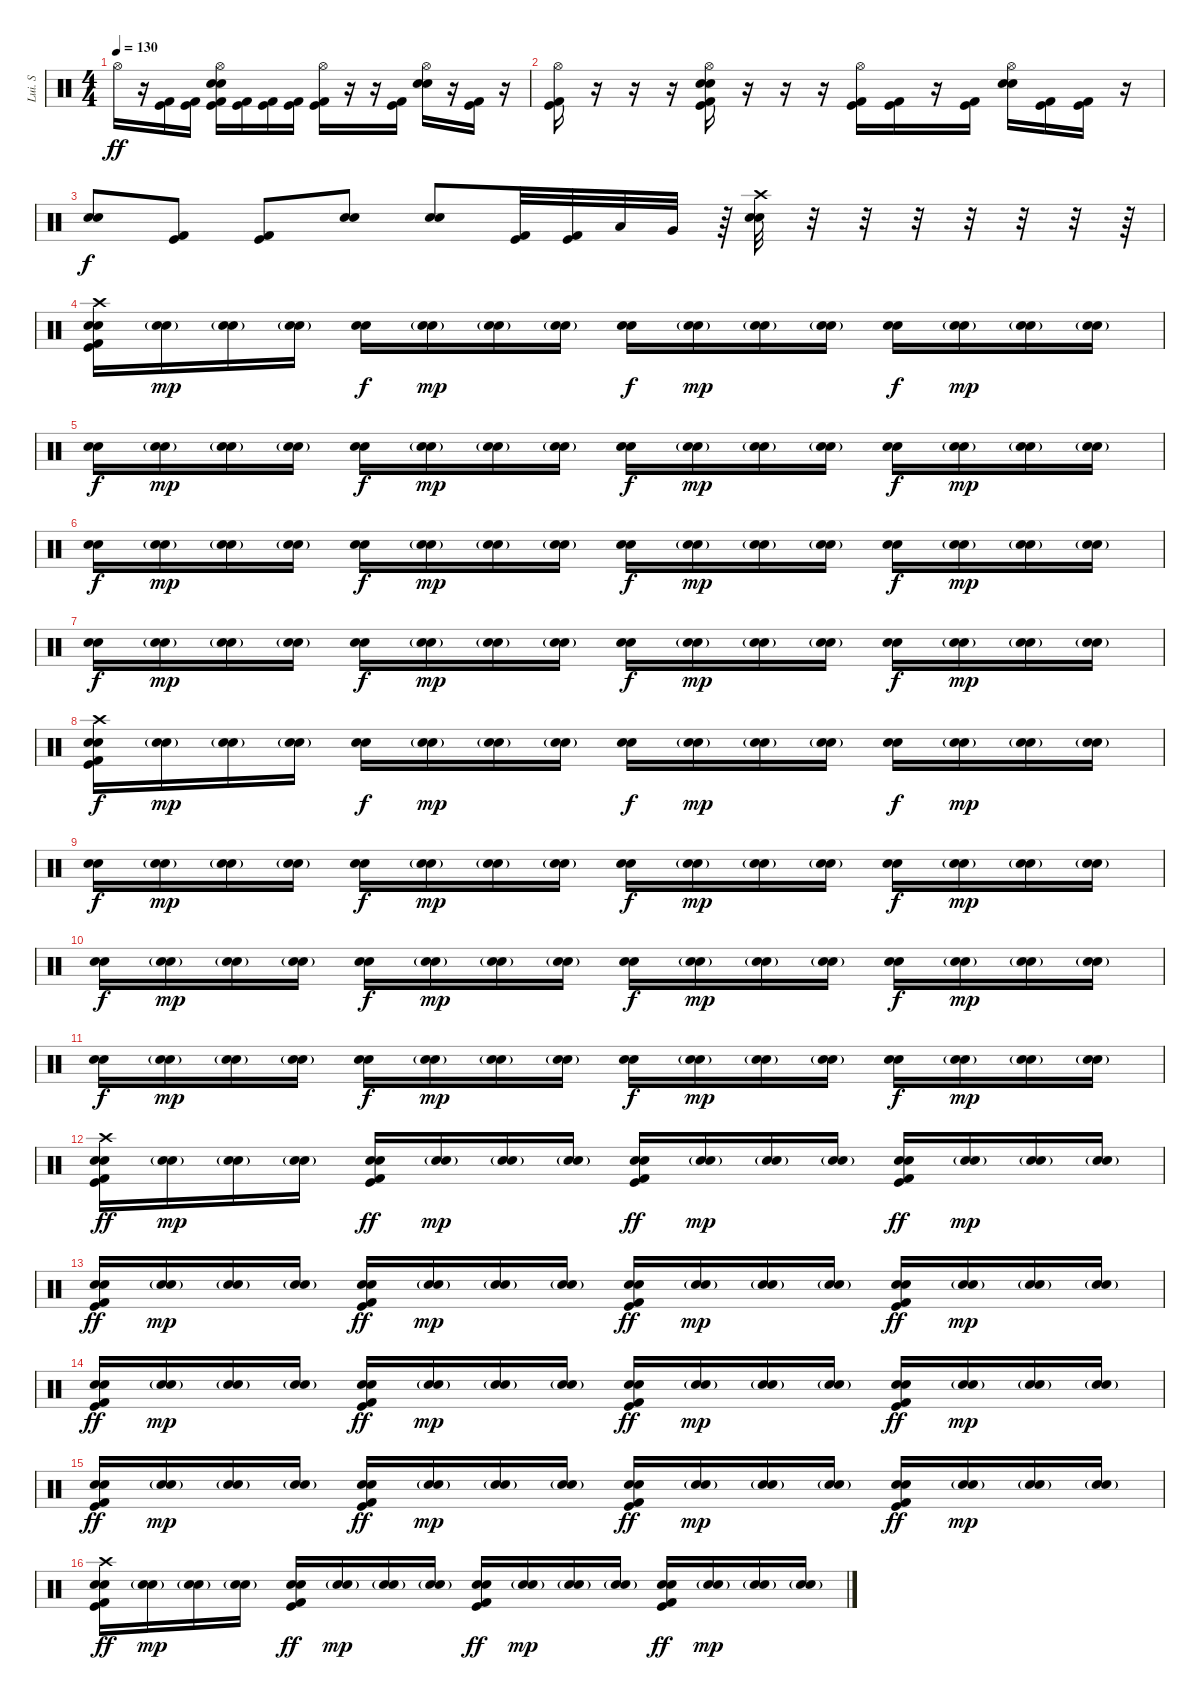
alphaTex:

\track ("Lui. S" "Lui. S") {instrument percussion}
\staff {score}
\articulation defaults
\ts (4 4)
\tempo 130
\clef neutral
\ks c "Hi-Hat (open)".16{dy ff}
r.16 ("Kick (hit)" "Kick (hit) 2").16 ("Kick (hit)" "Kick (hit) 2").16 ("Hi-Hat (open)" "Electric Snare (hit)" "Snare (hit) 2" "Kick (hit)" "Kick (hit) 2").16 ("Kick (hit)" "Kick (hit) 2").16 ("Kick (hit)" "Kick (hit) 2").16 ("Kick (hit)" "Kick (hit) 2").16 ("Hi-Hat (open)" "Kick (hit)" "Kick (hit) 2").16 r.16 r.16 ("Kick (hit)" "Kick (hit) 2").16 ("Hi-Hat (open)" "Electric Snare (hit)" "Snare (hit) 2").16 r.16 ("Kick (hit)" "Kick (hit) 2").16 r.16 |
("Hi-Hat (open)" "Kick (hit)" "Kick (hit) 2").16 r.16 r.16 r.16 ("Hi-Hat (open)" "Electric Snare (hit)" "Snare (hit) 2" "Kick (hit)" "Kick (hit) 2").16 r.16 r.16 r.16 ("Hi-Hat (open)" "Kick (hit)" "Kick (hit) 2").16 ("Kick (hit)" "Kick (hit) 2").16 r.16 ("Kick (hit)" "Kick (hit) 2").16 ("Hi-Hat (open)" "Electric Snare (hit)" "Snare (hit) 2").16 ("Kick (hit)" "Kick (hit) 2").16 ("Kick (hit)" "Kick (hit) 2").16 r.16 |
("Snare (hit) 2" "Electric Snare (hit)").8{dy f} ("Kick (hit) 2" "Kick (hit)").8 ("Kick (hit) 2" "Kick (hit)").8 ("Snare (hit) 2" "Electric Snare (hit)").8 ("Snare (hit) 2" "Electric Snare (hit)").8 ("Kick (hit) 2" "Kick (hit)").32 ("Kick (hit) 2" "Kick (hit)").32 "Low Floor Tom (hit)".32 "Very Low Tom (hit)".32 r.64 ("Crash high (hit)" "Snare (hit) 2" "Electric Snare (hit)").32 r.32 r.32 r.32 r.32 r.32 r.32 r.64 |
("Crash high (hit)" "Snare (hit) 2" "Electric Snare (hit)" "Kick (hit)" "Kick (hit) 2").16 ("Snare (hit) 2"{g} "Electric Snare (hit)"{g}).16{dy mp} ("Snare (hit) 2"{g} "Electric Snare (hit)"{g}).16 ("Snare (hit) 2"{g} "Electric Snare (hit)"{g}).16 ("Snare (hit) 2" "Electric Snare (hit)").16{dy f} ("Snare (hit) 2"{g} "Electric Snare (hit)"{g}).16{dy mp} ("Snare (hit) 2"{g} "Electric Snare (hit)"{g}).16 ("Snare (hit) 2"{g} "Electric Snare (hit)"{g}).16 ("Snare (hit) 2" "Electric Snare (hit)").16{dy f} ("Snare (hit) 2"{g} "Electric Snare (hit)"{g}).16{dy mp} ("Snare (hit) 2"{g} "Electric Snare (hit)"{g}).16 ("Snare (hit) 2"{g} "Electric Snare (hit)"{g}).16 ("Snare (hit) 2" "Electric Snare (hit)").16{dy f} ("Snare (hit) 2"{g} "Electric Snare (hit)"{g}).16{dy mp} ("Snare (hit) 2"{g} "Electric Snare (hit)"{g}).16 ("Snare (hit) 2"{g} "Electric Snare (hit)"{g}).16 |
("Snare (hit) 2" "Electric Snare (hit)").16{dy f} ("Snare (hit) 2"{g} "Electric Snare (hit)"{g}).16{dy mp} ("Snare (hit) 2"{g} "Electric Snare (hit)"{g}).16 ("Snare (hit) 2"{g} "Electric Snare (hit)"{g}).16 ("Snare (hit) 2" "Electric Snare (hit)").16{dy f} ("Snare (hit) 2"{g} "Electric Snare (hit)"{g}).16{dy mp} ("Snare (hit) 2"{g} "Electric Snare (hit)"{g}).16 ("Snare (hit) 2"{g} "Electric Snare (hit)"{g}).16 ("Snare (hit) 2" "Electric Snare (hit)").16{dy f} ("Snare (hit) 2"{g} "Electric Snare (hit)"{g}).16{dy mp} ("Snare (hit) 2"{g} "Electric Snare (hit)"{g}).16 ("Snare (hit) 2"{g} "Electric Snare (hit)"{g}).16 ("Snare (hit) 2" "Electric Snare (hit)").16{dy f} ("Snare (hit) 2"{g} "Electric Snare (hit)"{g}).16{dy mp} ("Snare (hit) 2"{g} "Electric Snare (hit)"{g}).16 ("Snare (hit) 2"{g} "Electric Snare (hit)"{g}).16 |
("Snare (hit) 2" "Electric Snare (hit)").16{dy f} ("Snare (hit) 2"{g} "Electric Snare (hit)"{g}).16{dy mp} ("Snare (hit) 2"{g} "Electric Snare (hit)"{g}).16 ("Snare (hit) 2"{g} "Electric Snare (hit)"{g}).16 ("Snare (hit) 2" "Electric Snare (hit)").16{dy f} ("Snare (hit) 2"{g} "Electric Snare (hit)"{g}).16{dy mp} ("Snare (hit) 2"{g} "Electric Snare (hit)"{g}).16 ("Snare (hit) 2"{g} "Electric Snare (hit)"{g}).16 ("Snare (hit) 2" "Electric Snare (hit)").16{dy f} ("Snare (hit) 2"{g} "Electric Snare (hit)"{g}).16{dy mp} ("Snare (hit) 2"{g} "Electric Snare (hit)"{g}).16 ("Snare (hit) 2"{g} "Electric Snare (hit)"{g}).16 ("Snare (hit) 2" "Electric Snare (hit)").16{dy f} ("Snare (hit) 2"{g} "Electric Snare (hit)"{g}).16{dy mp} ("Snare (hit) 2"{g} "Electric Snare (hit)"{g}).16 ("Snare (hit) 2"{g} "Electric Snare (hit)"{g}).16 |
("Snare (hit) 2" "Electric Snare (hit)").16{dy f} ("Snare (hit) 2"{g} "Electric Snare (hit)"{g}).16{dy mp} ("Snare (hit) 2"{g} "Electric Snare (hit)"{g}).16 ("Snare (hit) 2"{g} "Electric Snare (hit)"{g}).16 ("Snare (hit) 2" "Electric Snare (hit)").16{dy f} ("Snare (hit) 2"{g} "Electric Snare (hit)"{g}).16{dy mp} ("Snare (hit) 2"{g} "Electric Snare (hit)"{g}).16 ("Snare (hit) 2"{g} "Electric Snare (hit)"{g}).16 ("Snare (hit) 2" "Electric Snare (hit)").16{dy f} ("Snare (hit) 2"{g} "Electric Snare (hit)"{g}).16{dy mp} ("Snare (hit) 2"{g} "Electric Snare (hit)"{g}).16 ("Snare (hit) 2"{g} "Electric Snare (hit)"{g}).16 ("Snare (hit) 2" "Electric Snare (hit)").16{dy f} ("Snare (hit) 2"{g} "Electric Snare (hit)"{g}).16{dy mp} ("Snare (hit) 2"{g} "Electric Snare (hit)"{g}).16 ("Snare (hit) 2"{g} "Electric Snare (hit)"{g}).16 |
("Crash high (hit)" "Snare (hit) 2" "Electric Snare (hit)" "Kick (hit) 2" "Kick (hit)").16{dy f} ("Snare (hit) 2"{g} "Electric Snare (hit)"{g}).16{dy mp} ("Snare (hit) 2"{g} "Electric Snare (hit)"{g}).16 ("Snare (hit) 2"{g} "Electric Snare (hit)"{g}).16 ("Snare (hit) 2" "Electric Snare (hit)").16{dy f} ("Snare (hit) 2"{g} "Electric Snare (hit)"{g}).16{dy mp} ("Snare (hit) 2"{g} "Electric Snare (hit)"{g}).16 ("Snare (hit) 2"{g} "Electric Snare (hit)"{g}).16 ("Snare (hit) 2" "Electric Snare (hit)").16{dy f} ("Snare (hit) 2"{g} "Electric Snare (hit)"{g}).16{dy mp} ("Snare (hit) 2"{g} "Electric Snare (hit)"{g}).16 ("Snare (hit) 2"{g} "Electric Snare (hit)"{g}).16 ("Snare (hit) 2" "Electric Snare (hit)").16{dy f} ("Snare (hit) 2"{g} "Electric Snare (hit)"{g}).16{dy mp} ("Snare (hit) 2"{g} "Electric Snare (hit)"{g}).16 ("Snare (hit) 2"{g} "Electric Snare (hit)"{g}).16 |
("Snare (hit) 2" "Electric Snare (hit)").16{dy f} ("Snare (hit) 2"{g} "Electric Snare (hit)"{g}).16{dy mp} ("Snare (hit) 2"{g} "Electric Snare (hit)"{g}).16 ("Snare (hit) 2"{g} "Electric Snare (hit)"{g}).16 ("Snare (hit) 2" "Electric Snare (hit)").16{dy f} ("Snare (hit) 2"{g} "Electric Snare (hit)"{g}).16{dy mp} ("Snare (hit) 2"{g} "Electric Snare (hit)"{g}).16 ("Snare (hit) 2"{g} "Electric Snare (hit)"{g}).16 ("Snare (hit) 2" "Electric Snare (hit)").16{dy f} ("Snare (hit) 2"{g} "Electric Snare (hit)"{g}).16{dy mp} ("Snare (hit) 2"{g} "Electric Snare (hit)"{g}).16 ("Snare (hit) 2"{g} "Electric Snare (hit)"{g}).16 ("Snare (hit) 2" "Electric Snare (hit)").16{dy f} ("Snare (hit) 2"{g} "Electric Snare (hit)"{g}).16{dy mp} ("Snare (hit) 2"{g} "Electric Snare (hit)"{g}).16 ("Snare (hit) 2"{g} "Electric Snare (hit)"{g}).16 |
("Snare (hit) 2" "Electric Snare (hit)").16{dy f} ("Snare (hit) 2"{g} "Electric Snare (hit)"{g}).16{dy mp} ("Snare (hit) 2"{g} "Electric Snare (hit)"{g}).16 ("Snare (hit) 2"{g} "Electric Snare (hit)"{g}).16 ("Snare (hit) 2" "Electric Snare (hit)").16{dy f} ("Snare (hit) 2"{g} "Electric Snare (hit)"{g}).16{dy mp} ("Snare (hit) 2"{g} "Electric Snare (hit)"{g}).16 ("Snare (hit) 2"{g} "Electric Snare (hit)"{g}).16 ("Snare (hit) 2" "Electric Snare (hit)").16{dy f} ("Snare (hit) 2"{g} "Electric Snare (hit)"{g}).16{dy mp} ("Snare (hit) 2"{g} "Electric Snare (hit)"{g}).16 ("Snare (hit) 2"{g} "Electric Snare (hit)"{g}).16 ("Snare (hit) 2" "Electric Snare (hit)").16{dy f} ("Snare (hit) 2"{g} "Electric Snare (hit)"{g}).16{dy mp} ("Snare (hit) 2"{g} "Electric Snare (hit)"{g}).16 ("Snare (hit) 2"{g} "Electric Snare (hit)"{g}).16 |
("Snare (hit) 2" "Electric Snare (hit)").16{dy f} ("Snare (hit) 2"{g} "Electric Snare (hit)"{g}).16{dy mp} ("Snare (hit) 2"{g} "Electric Snare (hit)"{g}).16 ("Snare (hit) 2"{g} "Electric Snare (hit)"{g}).16 ("Snare (hit) 2" "Electric Snare (hit)").16{dy f} ("Snare (hit) 2"{g} "Electric Snare (hit)"{g}).16{dy mp} ("Snare (hit) 2"{g} "Electric Snare (hit)"{g}).16 ("Snare (hit) 2"{g} "Electric Snare (hit)"{g}).16 ("Snare (hit) 2" "Electric Snare (hit)").16{dy f} ("Snare (hit) 2"{g} "Electric Snare (hit)"{g}).16{dy mp} ("Snare (hit) 2"{g} "Electric Snare (hit)"{g}).16 ("Snare (hit) 2"{g} "Electric Snare (hit)"{g}).16 ("Snare (hit) 2" "Electric Snare (hit)").16{dy f} ("Snare (hit) 2"{g} "Electric Snare (hit)"{g}).16{dy mp} ("Snare (hit) 2"{g} "Electric Snare (hit)"{g}).16 ("Snare (hit) 2"{g} "Electric Snare (hit)"{g}).16 |
("Crash high (hit)" "Snare (hit) 2" "Electric Snare (hit)" "Kick (hit) 2" "Kick (hit)").16{dy ff} ("Snare (hit) 2"{g} "Electric Snare (hit)"{g}).16{dy mp} ("Snare (hit) 2"{g} "Electric Snare (hit)"{g}).16 ("Snare (hit) 2"{g} "Electric Snare (hit)"{g}).16 ("Snare (hit) 2" "Electric Snare (hit)" "Kick (hit)" "Kick (hit) 2").16{dy ff} ("Snare (hit) 2"{g} "Electric Snare (hit)"{g}).16{dy mp} ("Snare (hit) 2"{g} "Electric Snare (hit)"{g}).16 ("Snare (hit) 2"{g} "Electric Snare (hit)"{g}).16 ("Snare (hit) 2" "Electric Snare (hit)" "Kick (hit) 2" "Kick (hit)").16{dy ff} ("Snare (hit) 2"{g} "Electric Snare (hit)"{g}).16{dy mp} ("Snare (hit) 2"{g} "Electric Snare (hit)"{g}).16 ("Snare (hit) 2"{g} "Electric Snare (hit)"{g}).16 ("Snare (hit) 2" "Electric Snare (hit)" "Kick (hit)" "Kick (hit) 2").16{dy ff} ("Snare (hit) 2"{g} "Electric Snare (hit)"{g}).16{dy mp} ("Snare (hit) 2"{g} "Electric Snare (hit)"{g}).16 ("Snare (hit) 2"{g} "Electric Snare (hit)"{g}).16 |
("Snare (hit) 2" "Electric Snare (hit)" "Kick (hit) 2" "Kick (hit)").16{dy ff} ("Snare (hit) 2"{g} "Electric Snare (hit)"{g}).16{dy mp} ("Snare (hit) 2"{g} "Electric Snare (hit)"{g}).16 ("Snare (hit) 2"{g} "Electric Snare (hit)"{g}).16 ("Snare (hit) 2" "Electric Snare (hit)" "Kick (hit)" "Kick (hit) 2").16{dy ff} ("Snare (hit) 2"{g} "Electric Snare (hit)"{g}).16{dy mp} ("Snare (hit) 2"{g} "Electric Snare (hit)"{g}).16 ("Snare (hit) 2"{g} "Electric Snare (hit)"{g}).16 ("Snare (hit) 2" "Electric Snare (hit)" "Kick (hit)" "Kick (hit) 2").16{dy ff} ("Snare (hit) 2"{g} "Electric Snare (hit)"{g}).16{dy mp} ("Snare (hit) 2"{g} "Electric Snare (hit)"{g}).16 ("Snare (hit) 2"{g} "Electric Snare (hit)"{g}).16 ("Snare (hit) 2" "Electric Snare (hit)" "Kick (hit)" "Kick (hit) 2").16{dy ff} ("Snare (hit) 2"{g} "Electric Snare (hit)"{g}).16{dy mp} ("Snare (hit) 2"{g} "Electric Snare (hit)"{g}).16 ("Snare (hit) 2"{g} "Electric Snare (hit)"{g}).16 |
("Snare (hit) 2" "Electric Snare (hit)" "Kick (hit) 2" "Kick (hit)").16{dy ff} ("Snare (hit) 2"{g} "Electric Snare (hit)"{g}).16{dy mp} ("Snare (hit) 2"{g} "Electric Snare (hit)"{g}).16 ("Snare (hit) 2"{g} "Electric Snare (hit)"{g}).16 ("Snare (hit) 2" "Electric Snare (hit)" "Kick (hit)" "Kick (hit) 2").16{dy ff} ("Snare (hit) 2"{g} "Electric Snare (hit)"{g}).16{dy mp} ("Snare (hit) 2"{g} "Electric Snare (hit)"{g}).16 ("Snare (hit) 2"{g} "Electric Snare (hit)"{g}).16 ("Snare (hit) 2" "Electric Snare (hit)" "Kick (hit)" "Kick (hit) 2").16{dy ff} ("Snare (hit) 2"{g} "Electric Snare (hit)"{g}).16{dy mp} ("Snare (hit) 2"{g} "Electric Snare (hit)"{g}).16 ("Snare (hit) 2"{g} "Electric Snare (hit)"{g}).16 ("Snare (hit) 2" "Electric Snare (hit)" "Kick (hit)" "Kick (hit) 2").16{dy ff} ("Snare (hit) 2"{g} "Electric Snare (hit)"{g}).16{dy mp} ("Snare (hit) 2"{g} "Electric Snare (hit)"{g}).16 ("Snare (hit) 2"{g} "Electric Snare (hit)"{g}).16 |
("Snare (hit) 2" "Electric Snare (hit)" "Kick (hit) 2" "Kick (hit)").16{dy ff} ("Snare (hit) 2"{g} "Electric Snare (hit)"{g}).16{dy mp} ("Snare (hit) 2"{g} "Electric Snare (hit)"{g}).16 ("Snare (hit) 2"{g} "Electric Snare (hit)"{g}).16 ("Snare (hit) 2" "Electric Snare (hit)" "Kick (hit)" "Kick (hit) 2").16{dy ff} ("Snare (hit) 2"{g} "Electric Snare (hit)"{g}).16{dy mp} ("Snare (hit) 2"{g} "Electric Snare (hit)"{g}).16 ("Snare (hit) 2"{g} "Electric Snare (hit)"{g}).16 ("Snare (hit) 2" "Electric Snare (hit)" "Kick (hit)" "Kick (hit) 2").16{dy ff} ("Snare (hit) 2"{g} "Electric Snare (hit)"{g}).16{dy mp} ("Snare (hit) 2"{g} "Electric Snare (hit)"{g}).16 ("Snare (hit) 2"{g} "Electric Snare (hit)"{g}).16 ("Snare (hit) 2" "Electric Snare (hit)" "Kick (hit)" "Kick (hit) 2").16{dy ff} ("Snare (hit) 2"{g} "Electric Snare (hit)"{g}).16{dy mp} ("Snare (hit) 2"{g} "Electric Snare (hit)"{g}).16 ("Snare (hit) 2"{g} "Electric Snare (hit)"{g}).16 |
("Crash high (hit)" "Snare (hit) 2" "Electric Snare (hit)" "Kick (hit) 2" "Kick (hit)").16{dy ff} ("Snare (hit) 2"{g} "Electric Snare (hit)"{g}).16{dy mp} ("Snare (hit) 2"{g} "Electric Snare (hit)"{g}).16 ("Snare (hit) 2"{g} "Electric Snare (hit)"{g}).16 ("Snare (hit) 2" "Electric Snare (hit)" "Kick (hit)" "Kick (hit) 2").16{dy ff} ("Snare (hit) 2"{g} "Electric Snare (hit)"{g}).16{dy mp} ("Snare (hit) 2"{g} "Electric Snare (hit)"{g}).16 ("Snare (hit) 2"{g} "Electric Snare (hit)"{g}).16 ("Snare (hit) 2" "Electric Snare (hit)" "Kick (hit) 2" "Kick (hit)").16{dy ff} ("Snare (hit) 2"{g} "Electric Snare (hit)"{g}).16{dy mp} ("Snare (hit) 2"{g} "Electric Snare (hit)"{g}).16 ("Snare (hit) 2"{g} "Electric Snare (hit)"{g}).16 ("Snare (hit) 2" "Electric Snare (hit)" "Kick (hit)" "Kick (hit) 2").16{dy ff} ("Snare (hit) 2"{g} "Electric Snare (hit)"{g}).16{dy mp} ("Snare (hit) 2"{g} "Electric Snare (hit)"{g}).16 ("Snare (hit) 2"{g} "Electric Snare (hit)"{g}).16
